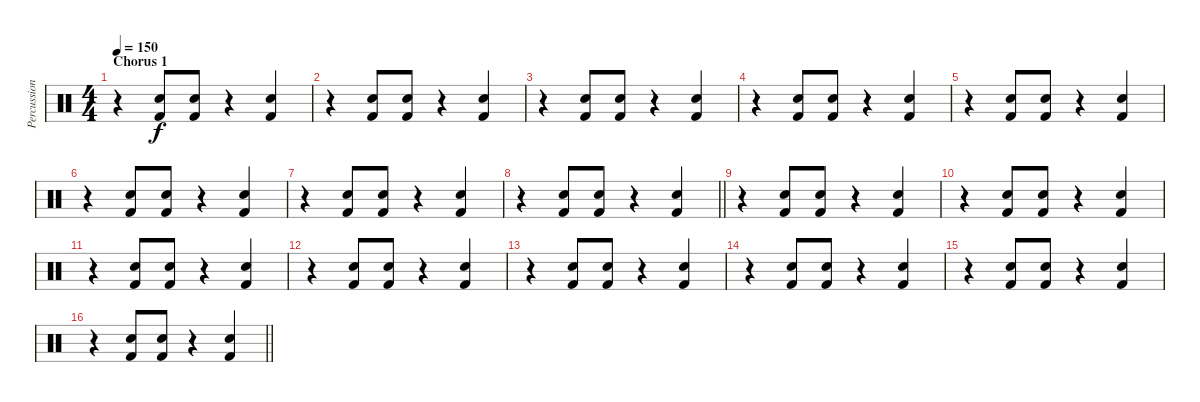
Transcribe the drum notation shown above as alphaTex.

\track ("Percussion" "Percussion") {instrument percussion}
\staff {score}
\articulation defaults
\ts (4 4)
\section ("" "Chorus 1")
\tempo 150
\clef neutral
\ks c
r.4{dy f} ("Snare (hit) 2" "Kick (hit) 2").8 ("Snare (hit) 2" "Kick (hit) 2").8 r.4 ("Snare (hit) 2" "Kick (hit) 2").4 |
r.4 ("Snare (hit) 2" "Kick (hit) 2").8 ("Snare (hit) 2" "Kick (hit) 2").8 r.4 ("Snare (hit) 2" "Kick (hit) 2").4 |
r.4 ("Snare (hit) 2" "Kick (hit) 2").8 ("Snare (hit) 2" "Kick (hit) 2").8 r.4 ("Snare (hit) 2" "Kick (hit) 2").4 |
r.4 ("Snare (hit) 2" "Kick (hit) 2").8 ("Snare (hit) 2" "Kick (hit) 2").8 r.4 ("Snare (hit) 2" "Kick (hit) 2").4 |
r.4 ("Snare (hit) 2" "Kick (hit) 2").8 ("Snare (hit) 2" "Kick (hit) 2").8 r.4 ("Snare (hit) 2" "Kick (hit) 2").4 |
r.4 ("Snare (hit) 2" "Kick (hit) 2").8 ("Snare (hit) 2" "Kick (hit) 2").8 r.4 ("Snare (hit) 2" "Kick (hit) 2").4 |
r.4 ("Snare (hit) 2" "Kick (hit) 2").8 ("Snare (hit) 2" "Kick (hit) 2").8 r.4 ("Snare (hit) 2" "Kick (hit) 2").4 |
\barLineRight lightlight
r.4 ("Snare (hit) 2" "Kick (hit) 2").8 ("Snare (hit) 2" "Kick (hit) 2").8 r.4 ("Snare (hit) 2" "Kick (hit) 2").4 |
r.4 ("Snare (hit) 2" "Kick (hit) 2").8 ("Snare (hit) 2" "Kick (hit) 2").8 r.4 ("Snare (hit) 2" "Kick (hit) 2").4 |
r.4 ("Snare (hit) 2" "Kick (hit) 2").8 ("Snare (hit) 2" "Kick (hit) 2").8 r.4 ("Snare (hit) 2" "Kick (hit) 2").4 |
r.4 ("Snare (hit) 2" "Kick (hit) 2").8 ("Snare (hit) 2" "Kick (hit) 2").8 r.4 ("Snare (hit) 2" "Kick (hit) 2").4 |
r.4 ("Snare (hit) 2" "Kick (hit) 2").8 ("Snare (hit) 2" "Kick (hit) 2").8 r.4 ("Snare (hit) 2" "Kick (hit) 2").4 |
r.4 ("Snare (hit) 2" "Kick (hit) 2").8 ("Snare (hit) 2" "Kick (hit) 2").8 r.4 ("Snare (hit) 2" "Kick (hit) 2").4 |
r.4 ("Snare (hit) 2" "Kick (hit) 2").8 ("Snare (hit) 2" "Kick (hit) 2").8 r.4 ("Snare (hit) 2" "Kick (hit) 2").4 |
r.4 ("Snare (hit) 2" "Kick (hit) 2").8 ("Snare (hit) 2" "Kick (hit) 2").8 r.4 ("Snare (hit) 2" "Kick (hit) 2").4 |
\barLineRight lightlight
r.4 ("Snare (hit) 2" "Kick (hit) 2").8 ("Snare (hit) 2" "Kick (hit) 2").8 r.4 ("Snare (hit) 2" "Kick (hit) 2").4
